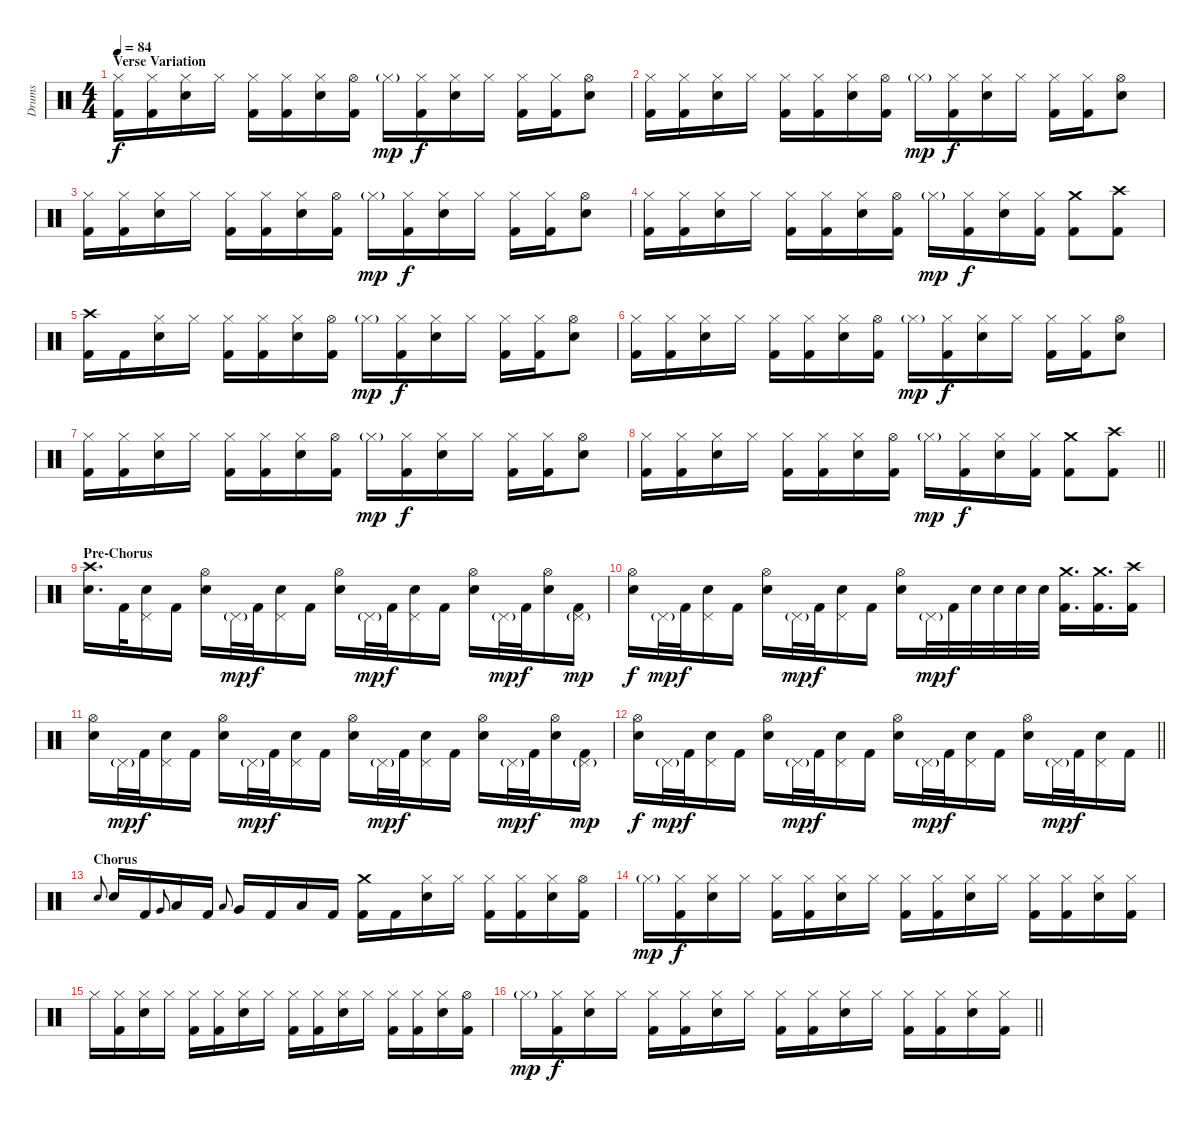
\track ("Drums" "Drums") {instrument percussion}
\staff {score}
\articulation defaults
\ts (4 4)
\section ("" "Verse Variation")
\tempo 84
\clef neutral
\ks c
("Hi-Hat (closed)" "Kick (hit) 2").16{dy f} ("Hi-Hat (closed)" "Kick (hit) 2").16 ("Hi-Hat (closed)" "Snare (hit) 2").16 "Hi-Hat (closed)".16 ("Hi-Hat (closed)" "Kick (hit) 2").16 ("Hi-Hat (closed)" "Kick (hit) 2").16 ("Hi-Hat (closed)" "Snare (hit) 2").16 ("Hi-Hat (open)" "Kick (hit) 2").16 "Hi-Hat (closed)"{g}.16{dy mp} ("Hi-Hat (closed)" "Kick (hit) 2").16{dy f} ("Hi-Hat (closed)" "Snare (hit) 2").16 "Hi-Hat (closed)".16 ("Hi-Hat (closed)" "Kick (hit) 2").16 ("Hi-Hat (closed)" "Kick (hit) 2").16 ("Hi-Hat (open)" "Snare (hit) 2").8 |
("Hi-Hat (closed)" "Kick (hit) 2").16 ("Hi-Hat (closed)" "Kick (hit) 2").16 ("Hi-Hat (closed)" "Snare (hit) 2").16 "Hi-Hat (closed)".16 ("Hi-Hat (closed)" "Kick (hit) 2").16 ("Hi-Hat (closed)" "Kick (hit) 2").16 ("Hi-Hat (closed)" "Snare (hit) 2").16 ("Hi-Hat (open)" "Kick (hit) 2").16 "Hi-Hat (closed)"{g}.16{dy mp} ("Hi-Hat (closed)" "Kick (hit) 2").16{dy f} ("Hi-Hat (closed)" "Snare (hit) 2").16 "Hi-Hat (closed)".16 ("Hi-Hat (closed)" "Kick (hit) 2").16 ("Hi-Hat (closed)" "Kick (hit) 2").16 ("Hi-Hat (open)" "Snare (hit) 2").8 |
("Hi-Hat (closed)" "Kick (hit) 2").16 ("Hi-Hat (closed)" "Kick (hit) 2").16 ("Hi-Hat (closed)" "Snare (hit) 2").16 "Hi-Hat (closed)".16 ("Hi-Hat (closed)" "Kick (hit) 2").16 ("Hi-Hat (closed)" "Kick (hit) 2").16 ("Hi-Hat (closed)" "Snare (hit) 2").16 ("Hi-Hat (open)" "Kick (hit) 2").16 "Hi-Hat (closed)"{g}.16{dy mp} ("Hi-Hat (closed)" "Kick (hit) 2").16{dy f} ("Hi-Hat (closed)" "Snare (hit) 2").16 "Hi-Hat (closed)".16 ("Hi-Hat (closed)" "Kick (hit) 2").16 ("Hi-Hat (closed)" "Kick (hit) 2").16 ("Hi-Hat (open)" "Snare (hit) 2").8 |
("Hi-Hat (closed)" "Kick (hit) 2").16 ("Hi-Hat (closed)" "Kick (hit) 2").16 ("Hi-Hat (closed)" "Snare (hit) 2").16 "Hi-Hat (closed)".16 ("Hi-Hat (closed)" "Kick (hit) 2").16 ("Hi-Hat (closed)" "Kick (hit) 2").16 ("Hi-Hat (closed)" "Snare (hit) 2").16 ("Hi-Hat (open)" "Kick (hit) 2").16 "Hi-Hat (closed)"{g}.16{dy mp} ("Hi-Hat (closed)" "Kick (hit) 2").16{dy f} ("Hi-Hat (closed)" "Snare (hit) 2").16 ("Hi-Hat (closed)" "Kick (hit) 2").16 ("Crash medium (hit)" "Kick (hit) 2").8 ("Crash high (hit)" "Kick (hit) 2").8 |
("Crash high (hit)" "Kick (hit) 2").16 "Kick (hit) 2".16 ("Hi-Hat (closed)" "Snare (hit) 2").16 "Hi-Hat (closed)".16 ("Hi-Hat (closed)" "Kick (hit) 2").16 ("Hi-Hat (closed)" "Kick (hit) 2").16 ("Hi-Hat (closed)" "Snare (hit) 2").16 ("Hi-Hat (open)" "Kick (hit) 2").16 "Hi-Hat (closed)"{g}.16{dy mp} ("Hi-Hat (closed)" "Kick (hit) 2").16{dy f} ("Hi-Hat (closed)" "Snare (hit) 2").16 "Hi-Hat (closed)".16 ("Hi-Hat (closed)" "Kick (hit) 2").16 ("Hi-Hat (closed)" "Kick (hit) 2").16 ("Hi-Hat (open)" "Snare (hit) 2").8 |
("Hi-Hat (closed)" "Kick (hit) 2").16 ("Hi-Hat (closed)" "Kick (hit) 2").16 ("Hi-Hat (closed)" "Snare (hit) 2").16 "Hi-Hat (closed)".16 ("Hi-Hat (closed)" "Kick (hit) 2").16 ("Hi-Hat (closed)" "Kick (hit) 2").16 ("Hi-Hat (closed)" "Snare (hit) 2").16 ("Hi-Hat (open)" "Kick (hit) 2").16 "Hi-Hat (closed)"{g}.16{dy mp} ("Hi-Hat (closed)" "Kick (hit) 2").16{dy f} ("Hi-Hat (closed)" "Snare (hit) 2").16 "Hi-Hat (closed)".16 ("Hi-Hat (closed)" "Kick (hit) 2").16 ("Hi-Hat (closed)" "Kick (hit) 2").16 ("Hi-Hat (open)" "Snare (hit) 2").8 |
("Hi-Hat (closed)" "Kick (hit) 2").16 ("Hi-Hat (closed)" "Kick (hit) 2").16 ("Hi-Hat (closed)" "Snare (hit) 2").16 "Hi-Hat (closed)".16 ("Hi-Hat (closed)" "Kick (hit) 2").16 ("Hi-Hat (closed)" "Kick (hit) 2").16 ("Hi-Hat (closed)" "Snare (hit) 2").16 ("Hi-Hat (open)" "Kick (hit) 2").16 "Hi-Hat (closed)"{g}.16{dy mp} ("Hi-Hat (closed)" "Kick (hit) 2").16{dy f} ("Hi-Hat (closed)" "Snare (hit) 2").16 "Hi-Hat (closed)".16 ("Hi-Hat (closed)" "Kick (hit) 2").16 ("Hi-Hat (closed)" "Kick (hit) 2").16 ("Hi-Hat (open)" "Snare (hit) 2").8 |
\barLineRight lightlight
("Hi-Hat (closed)" "Kick (hit) 2").16 ("Hi-Hat (closed)" "Kick (hit) 2").16 ("Hi-Hat (closed)" "Snare (hit) 2").16 "Hi-Hat (closed)".16 ("Hi-Hat (closed)" "Kick (hit) 2").16 ("Hi-Hat (closed)" "Kick (hit) 2").16 ("Hi-Hat (closed)" "Snare (hit) 2").16 ("Hi-Hat (open)" "Kick (hit) 2").16 "Hi-Hat (closed)"{g}.16{dy mp} ("Hi-Hat (closed)" "Kick (hit) 2").16{dy f} ("Hi-Hat (closed)" "Snare (hit) 2").16 ("Hi-Hat (closed)" "Kick (hit) 2").16 ("Crash medium (hit)" "Kick (hit) 2").8 ("Crash high (hit)" "Kick (hit) 2").8 |
\section ("" "Pre-Chorus")
("Crash high (hit)" "Snare (hit) 2").16{d} "Kick (hit) 2".32 ("Pedal Hi-Hat (hit)" "Snare (hit) 2").16 "Kick (hit) 2".16 ("Hi-Hat (open)" "Snare (hit) 2").16 "Pedal Hi-Hat (hit)"{g}.32{dy mp} "Kick (hit) 2".32{dy f} ("Pedal Hi-Hat (hit)" "Snare (hit) 2").16 "Kick (hit) 2".16 ("Hi-Hat (open)" "Snare (hit) 2").16 "Pedal Hi-Hat (hit)"{g}.32{dy mp} "Kick (hit) 2".32{dy f} ("Pedal Hi-Hat (hit)" "Snare (hit) 2").16 "Kick (hit) 2".16 ("Hi-Hat (open)" "Snare (hit) 2").16 "Pedal Hi-Hat (hit)"{g}.32{dy mp} "Kick (hit) 2".32{dy f} ("Hi-Hat (open)" "Snare (hit) 2").16 ("Pedal Hi-Hat (hit)"{g} "Kick (hit) 2").16{dy mp} |
("Hi-Hat (open)" "Snare (hit) 2").16{dy f} "Pedal Hi-Hat (hit)"{g}.32{dy mp} "Kick (hit) 2".32{dy f} ("Pedal Hi-Hat (hit)" "Snare (hit) 2").16 "Kick (hit) 2".16 ("Hi-Hat (open)" "Snare (hit) 2").16 "Pedal Hi-Hat (hit)"{g}.32{dy mp} "Kick (hit) 2".32{dy f} ("Pedal Hi-Hat (hit)" "Snare (hit) 2").16 "Kick (hit) 2".16 ("Hi-Hat (open)" "Snare (hit) 2").16 "Pedal Hi-Hat (hit)"{g}.32{dy mp} "Kick (hit) 2".32{dy f} "Snare (hit) 2".32 "Snare (hit) 2".32 "Snare (hit) 2".32 "Snare (hit) 2".32 ("Crash medium (hit)" "Kick (hit) 2").16{d} ("Crash medium (hit)" "Kick (hit) 2").16{d} ("Crash high (hit)" "Kick (hit) 2").16 |
("Hi-Hat (open)" "Snare (hit) 2").16 "Pedal Hi-Hat (hit)"{g}.32{dy mp} "Kick (hit) 2".32{dy f} ("Pedal Hi-Hat (hit)" "Snare (hit) 2").16 "Kick (hit) 2".16 ("Hi-Hat (open)" "Snare (hit) 2").16 "Pedal Hi-Hat (hit)"{g}.32{dy mp} "Kick (hit) 2".32{dy f} ("Pedal Hi-Hat (hit)" "Snare (hit) 2").16 "Kick (hit) 2".16 ("Hi-Hat (open)" "Snare (hit) 2").16 "Pedal Hi-Hat (hit)"{g}.32{dy mp} "Kick (hit) 2".32{dy f} ("Pedal Hi-Hat (hit)" "Snare (hit) 2").16 "Kick (hit) 2".16 ("Hi-Hat (open)" "Snare (hit) 2").16 "Pedal Hi-Hat (hit)"{g}.32{dy mp} "Kick (hit) 2".32{dy f} ("Hi-Hat (open)" "Snare (hit) 2").16 ("Pedal Hi-Hat (hit)"{g} "Kick (hit) 2").16{dy mp} |
\barLineRight lightlight
("Hi-Hat (open)" "Snare (hit) 2").16{dy f} "Pedal Hi-Hat (hit)"{g}.32{dy mp} "Kick (hit) 2".32{dy f} ("Pedal Hi-Hat (hit)" "Snare (hit) 2").16 "Kick (hit) 2".16 ("Hi-Hat (open)" "Snare (hit) 2").16 "Pedal Hi-Hat (hit)"{g}.32{dy mp} "Kick (hit) 2".32{dy f} ("Pedal Hi-Hat (hit)" "Snare (hit) 2").16 "Kick (hit) 2".16 ("Hi-Hat (open)" "Snare (hit) 2").16 "Pedal Hi-Hat (hit)"{g}.32{dy mp} "Kick (hit) 2".32{dy f} ("Pedal Hi-Hat (hit)" "Snare (hit) 2").16 "Kick (hit) 2".16 ("Hi-Hat (open)" "Snare (hit) 2").16 "Pedal Hi-Hat (hit)"{g}.32{dy mp} "Kick (hit) 2".32{dy f} ("Pedal Hi-Hat (hit)" "Snare (hit) 2").16 "Kick (hit) 2".16 |
\section ("" "Chorus")
"Snare (hit) 2".8{gr onbeat} "Snare (hit) 2".16 "Kick (hit) 2".16 "Very Low Tom (hit)".8{gr onbeat} "Low Tom (hit)".16 "Kick (hit) 2".16 "Low Floor Tom (hit)".8{gr onbeat} "Very Low Tom (hit)".16 "Kick (hit) 2".16 "Low Floor Tom (hit)".16 "Kick (hit) 2".16 ("Crash medium (hit)" "Kick (hit) 2").16 "Kick (hit) 2".16 ("Hi-Hat (closed)" "Snare (hit) 2").16 "Hi-Hat (closed)".16 ("Hi-Hat (closed)" "Kick (hit) 2").16 ("Hi-Hat (closed)" "Kick (hit) 2").16 ("Hi-Hat (closed)" "Snare (hit) 2").16 ("Hi-Hat (open)" "Kick (hit) 2").16 |
"Hi-Hat (closed)"{g}.16{dy mp} ("Hi-Hat (closed)" "Kick (hit) 2").16{dy f} ("Hi-Hat (closed)" "Snare (hit) 2").16 "Hi-Hat (closed)".16 ("Hi-Hat (closed)" "Kick (hit) 2").16 ("Hi-Hat (closed)" "Kick (hit) 2").16 ("Hi-Hat (closed)" "Snare (hit) 2").16 "Hi-Hat (closed)".16 ("Hi-Hat (closed)" "Kick (hit) 2").16 ("Hi-Hat (closed)" "Kick (hit) 2").16 ("Hi-Hat (closed)" "Snare (hit) 2").16 "Hi-Hat (closed)".16 ("Hi-Hat (closed)" "Kick (hit) 2").16 ("Hi-Hat (closed)" "Kick (hit) 2").16 ("Hi-Hat (closed)" "Snare (hit) 2").16 ("Hi-Hat (closed)" "Kick (hit) 2").16 |
"Hi-Hat (closed)".16 ("Hi-Hat (closed)" "Kick (hit) 2").16 ("Hi-Hat (closed)" "Snare (hit) 2").16 "Hi-Hat (closed)".16 ("Hi-Hat (closed)" "Kick (hit) 2").16 ("Hi-Hat (closed)" "Kick (hit) 2").16 ("Hi-Hat (closed)" "Snare (hit) 2").16 "Hi-Hat (closed)".16 ("Hi-Hat (closed)" "Kick (hit) 2").16 ("Hi-Hat (closed)" "Kick (hit) 2").16 ("Hi-Hat (closed)" "Snare (hit) 2").16 "Hi-Hat (closed)".16 ("Hi-Hat (closed)" "Kick (hit) 2").16 ("Hi-Hat (closed)" "Kick (hit) 2").16 ("Hi-Hat (closed)" "Snare (hit) 2").16 ("Hi-Hat (open)" "Kick (hit) 2").16 |
\barLineRight lightlight "Hi-Hat (closed)"{g}.16{dy mp}
("Hi-Hat (closed)" "Kick (hit) 2").16{dy f} ("Hi-Hat (closed)" "Snare (hit) 2").16 "Hi-Hat (closed)".16 ("Hi-Hat (closed)" "Kick (hit) 2").16 ("Hi-Hat (closed)" "Kick (hit) 2").16 ("Hi-Hat (closed)" "Snare (hit) 2").16 "Hi-Hat (closed)".16 ("Hi-Hat (closed)" "Kick (hit) 2").16 ("Hi-Hat (closed)" "Kick (hit) 2").16 ("Hi-Hat (closed)" "Snare (hit) 2").16 "Hi-Hat (closed)".16 ("Hi-Hat (closed)" "Kick (hit) 2").16 ("Hi-Hat (closed)" "Kick (hit) 2").16 ("Hi-Hat (closed)" "Snare (hit) 2").16 ("Hi-Hat (closed)" "Kick (hit) 2").16
